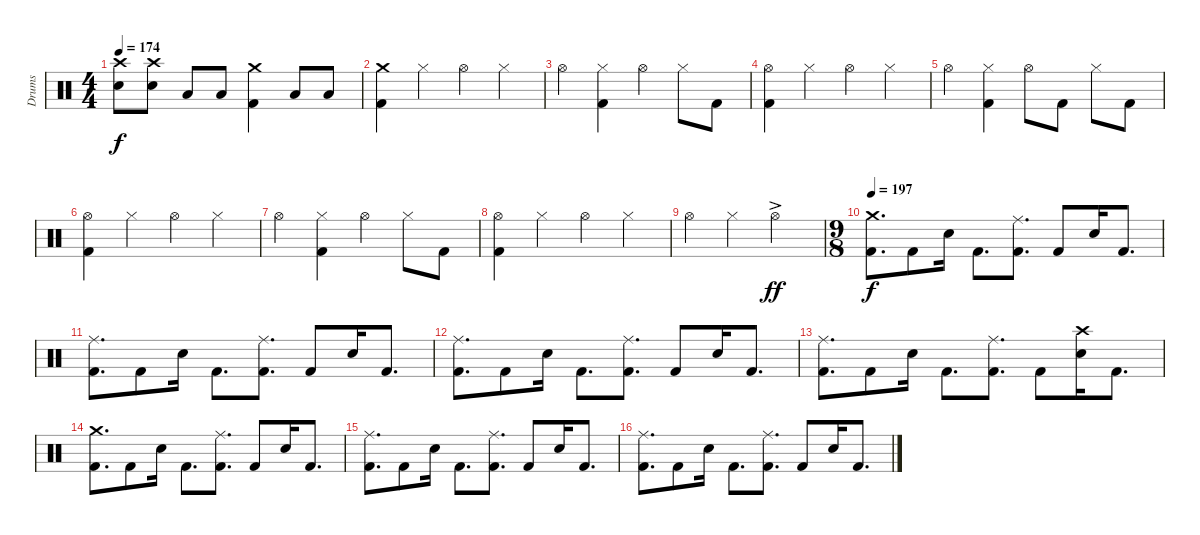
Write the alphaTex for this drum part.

\track ("Drums" "Drums") {instrument percussion}
\staff {score}
\articulation defaults
\ts (4 4)
\tempo 174
\clef neutral
\ks c
("Crash high (hit)" "Snare (hit) 2").8{dy f} ("Crash high (hit)" "Snare (hit) 2").8 "Low Tom (hit)".8 "Low Tom (hit)".8 ("Crash medium (hit)" "Kick (hit) 2").4 "Low Floor Tom (hit)".8 "Low Floor Tom (hit)".8 |
("Crash medium (hit)" "Kick (hit) 2").4 "Hi-Hat (closed)".4 "Hi-Hat (open)".4 "Hi-Hat (closed)".4 |
"Hi-Hat (open)".4 ("Hi-Hat (closed)" "Kick (hit) 2").4 "Hi-Hat (open)".4 "Hi-Hat (closed)".8 "Kick (hit) 2".8 |
("Hi-Hat (open)" "Kick (hit) 2").4 "Hi-Hat (closed)".4 "Hi-Hat (open)".4 "Hi-Hat (closed)".4 |
"Hi-Hat (open)".4 ("Hi-Hat (closed)" "Kick (hit) 2").4 "Hi-Hat (open)".8 "Kick (hit) 2".8 "Hi-Hat (closed)".8 "Kick (hit) 2".8 |
("Hi-Hat (open)" "Kick (hit) 2").4 "Hi-Hat (closed)".4 "Hi-Hat (open)".4 "Hi-Hat (closed)".4 |
"Hi-Hat (open)".4 ("Hi-Hat (closed)" "Kick (hit) 2").4 "Hi-Hat (open)".4 "Hi-Hat (closed)".8 "Kick (hit) 2".8 |
("Hi-Hat (open)" "Kick (hit) 2").4 "Hi-Hat (closed)".4 "Hi-Hat (open)".4 "Hi-Hat (closed)".4 |
"Hi-Hat (open)".4 "Hi-Hat (closed)".4 "Hi-Hat (open)"{ac}.2{dy ff} |
\ts (9 8)
\tempo 197
("Crash medium (hit)" "Kick (hit) 2").8{d dy f} "Kick (hit) 2".8 "Snare (hit) 2".16 "Kick (hit) 2".8{d} ("Ride (middle)" "Kick (hit) 2").8{d} "Kick (hit) 2".8 "Snare (hit) 2".16 "Kick (hit) 2".8{d} |
("Ride (middle)" "Kick (hit) 2").8{d} "Kick (hit) 2".8 "Snare (hit) 2".16 "Kick (hit) 2".8{d} ("Ride (middle)" "Kick (hit) 2").8{d} "Kick (hit) 2".8 "Snare (hit) 2".16 "Kick (hit) 2".8{d} |
("Ride (middle)" "Kick (hit) 2").8{d} "Kick (hit) 2".8 "Snare (hit) 2".16 "Kick (hit) 2".8{d} ("Ride (middle)" "Kick (hit) 2").8{d} "Kick (hit) 2".8 "Snare (hit) 2".16 "Kick (hit) 2".8{d} |
("Ride (middle)" "Kick (hit) 2").8{d} "Kick (hit) 2".8 "Snare (hit) 2".16 "Kick (hit) 2".8{d} ("Ride (middle)" "Kick (hit) 2").8{d} "Kick (hit) 2".8 ("Crash high (hit)" "Snare (hit) 2").16 "Kick (hit) 2".8{d} |
("Crash medium (hit)" "Kick (hit) 2").8{d} "Kick (hit) 2".8 "Snare (hit) 2".16 "Kick (hit) 2".8{d} ("Ride (middle)" "Kick (hit) 2").8{d} "Kick (hit) 2".8 "Snare (hit) 2".16 "Kick (hit) 2".8{d} |
("Ride (middle)" "Kick (hit) 2").8{d} "Kick (hit) 2".8 "Snare (hit) 2".16 "Kick (hit) 2".8{d} ("Ride (middle)" "Kick (hit) 2").8{d} "Kick (hit) 2".8 "Snare (hit) 2".16 "Kick (hit) 2".8{d} |
("Ride (middle)" "Kick (hit) 2").8{d} "Kick (hit) 2".8 "Snare (hit) 2".16 "Kick (hit) 2".8{d} ("Ride (middle)" "Kick (hit) 2").8{d} "Kick (hit) 2".8 "Snare (hit) 2".16 "Kick (hit) 2".8{d}
